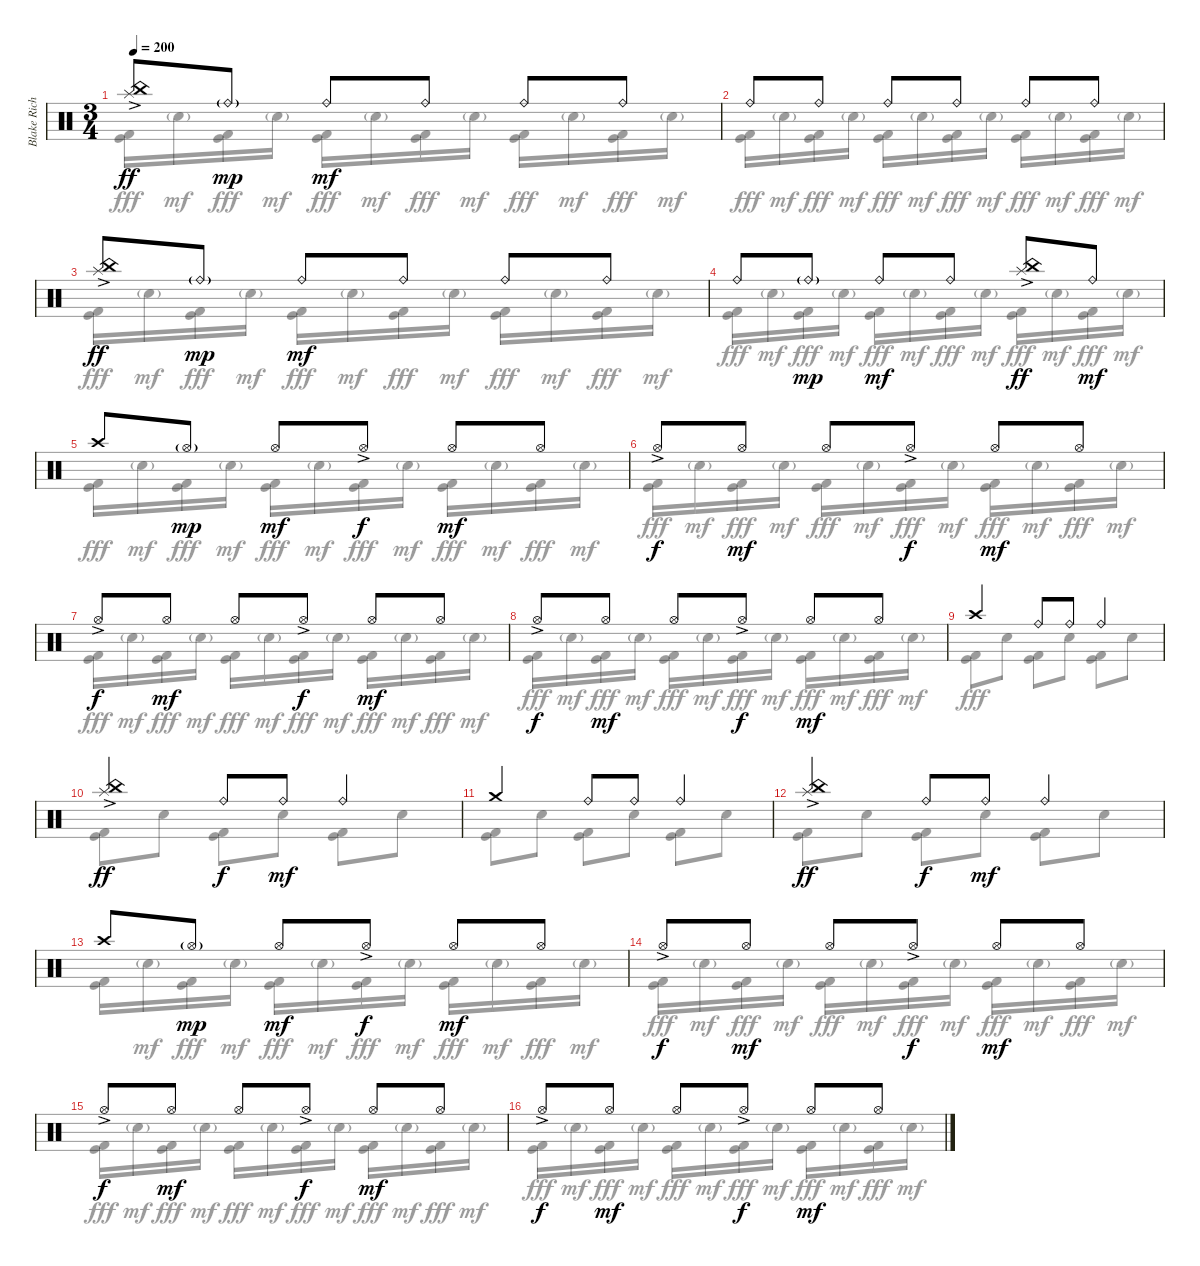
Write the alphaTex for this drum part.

\track ("Blake Richardson Drums" "Blake Rich") {instrument percussion}
\staff {score}
\articulation defaults
\voice
\ts (3 4)
\tempo 200
\clef neutral
\ks c
("China (hit)" "Splash (hit)"{ac}).8{dy ff} "Ride (bell)"{g}.8{dy mp} "Ride (bell)".8{dy mf} "Ride (bell)".8 "Ride (bell)".8 "Ride (bell)".8 |
"Ride (bell)".8 "Ride (bell)".8 "Ride (bell)".8 "Ride (bell)".8 "Ride (bell)".8 "Ride (bell)".8 |
("China (hit)" "Splash (hit)"{ac}).8{dy ff} "Ride (bell)"{g}.8{dy mp} "Ride (bell)".8{dy mf} "Ride (bell)".8 "Ride (bell)".8 "Ride (bell)".8 |
"Ride (bell)".8 "Ride (bell)"{g}.8{dy mp} "Ride (bell)".8{dy mf} "Ride (bell)".8 ("China (hit)" "Splash (hit)"{ac}).8{dy ff} "Ride (bell)".8{dy mf} |
"Crash high (hit)".8 "Hi-Hat (open)"{g}.8{dy mp} "Hi-Hat (open)".8{dy mf} "Hi-Hat (open)"{ac}.8{dy f} "Hi-Hat (open)".8{dy mf} "Hi-Hat (open)".8 |
"Hi-Hat (open)"{ac}.8{dy f} "Hi-Hat (open)".8{dy mf} "Hi-Hat (open)".8 "Hi-Hat (open)"{ac}.8{dy f} "Hi-Hat (open)".8{dy mf} "Hi-Hat (open)".8 |
"Hi-Hat (open)"{ac}.8{dy f} "Hi-Hat (open)".8{dy mf} "Hi-Hat (open)".8 "Hi-Hat (open)"{ac}.8{dy f} "Hi-Hat (open)".8{dy mf} "Hi-Hat (open)".8 |
"Hi-Hat (open)"{ac}.8{dy f} "Hi-Hat (open)".8{dy mf} "Hi-Hat (open)".8 "Hi-Hat (open)"{ac}.8{dy f} "Hi-Hat (open)".8{dy mf} "Hi-Hat (open)".8 |
"Crash high (hit)".4 "Ride (bell)".8 "Ride (bell)".8 "Ride (bell)".4 |
("China (hit)" "Splash (hit)"{ac}).4{dy ff} "Ride (bell)".8{dy f} "Ride (bell)".8{dy mf} "Ride (bell)".4 |
"Crash medium (hit)".4 "Ride (bell)".8 "Ride (bell)".8 "Ride (bell)".4 |
("China (hit)" "Splash (hit)"{ac}).4{dy ff} "Ride (bell)".8{dy f} "Ride (bell)".8{dy mf} "Ride (bell)".4 |
"Crash high (hit)".8 "Hi-Hat (open)"{g}.8{dy mp} "Hi-Hat (open)".8{dy mf} "Hi-Hat (open)"{ac}.8{dy f} "Hi-Hat (open)".8{dy mf} "Hi-Hat (open)".8 |
"Hi-Hat (open)"{ac}.8{dy f} "Hi-Hat (open)".8{dy mf} "Hi-Hat (open)".8 "Hi-Hat (open)"{ac}.8{dy f} "Hi-Hat (open)".8{dy mf} "Hi-Hat (open)".8 |
"Hi-Hat (open)"{ac}.8{dy f} "Hi-Hat (open)".8{dy mf} "Hi-Hat (open)".8 "Hi-Hat (open)"{ac}.8{dy f} "Hi-Hat (open)".8{dy mf} "Hi-Hat (open)".8 |
"Hi-Hat (open)"{ac}.8{dy f} "Hi-Hat (open)".8{dy mf} "Hi-Hat (open)".8 "Hi-Hat (open)"{ac}.8{dy f} "Hi-Hat (open)".8{dy mf} "Hi-Hat (open)".8
\voice
\clef neutral
\ottava regular
\simile none
\ks c
("Kick (hit)" "Kick (hit) 2").16{dy fff} "Electric Snare (hit)"{g}.16{dy mf} ("Kick (hit)" "Kick (hit) 2").16{dy fff} "Electric Snare (hit)"{g}.16{dy mf} ("Kick (hit)" "Kick (hit) 2").16{dy fff} "Electric Snare (hit)"{g}.16{dy mf} ("Kick (hit)" "Kick (hit) 2").16{dy fff} "Electric Snare (hit)"{g}.16{dy mf} ("Kick (hit)" "Kick (hit) 2").16{dy fff} "Electric Snare (hit)"{g}.16{dy mf} ("Kick (hit)" "Kick (hit) 2").16{dy fff} "Electric Snare (hit)"{g}.16{dy mf} |
("Kick (hit)" "Kick (hit) 2").16{dy fff} "Electric Snare (hit)"{g}.16{dy mf} ("Kick (hit)" "Kick (hit) 2").16{dy fff} "Electric Snare (hit)"{g}.16{dy mf} ("Kick (hit)" "Kick (hit) 2").16{dy fff} "Electric Snare (hit)"{g}.16{dy mf} ("Kick (hit)" "Kick (hit) 2").16{dy fff} "Electric Snare (hit)"{g}.16{dy mf} ("Kick (hit)" "Kick (hit) 2").16{dy fff} "Electric Snare (hit)"{g}.16{dy mf} ("Kick (hit)" "Kick (hit) 2").16{dy fff} "Electric Snare (hit)"{g}.16{dy mf} |
("Kick (hit)" "Kick (hit) 2").16{dy fff} "Electric Snare (hit)"{g}.16{dy mf} ("Kick (hit)" "Kick (hit) 2").16{dy fff} "Electric Snare (hit)"{g}.16{dy mf} ("Kick (hit)" "Kick (hit) 2").16{dy fff} "Electric Snare (hit)"{g}.16{dy mf} ("Kick (hit)" "Kick (hit) 2").16{dy fff} "Electric Snare (hit)"{g}.16{dy mf} ("Kick (hit)" "Kick (hit) 2").16{dy fff} "Electric Snare (hit)"{g}.16{dy mf} ("Kick (hit)" "Kick (hit) 2").16{dy fff} "Electric Snare (hit)"{g}.16{dy mf} |
("Kick (hit)" "Kick (hit) 2").16{dy fff} "Electric Snare (hit)"{g}.16{dy mf} ("Kick (hit)" "Kick (hit) 2").16{dy fff} "Electric Snare (hit)"{g}.16{dy mf} ("Kick (hit)" "Kick (hit) 2").16{dy fff} "Electric Snare (hit)"{g}.16{dy mf} ("Kick (hit)" "Kick (hit) 2").16{dy fff} "Electric Snare (hit)"{g}.16{dy mf} ("Kick (hit)" "Kick (hit) 2").16{dy fff} "Electric Snare (hit)"{g}.16{dy mf} ("Kick (hit)" "Kick (hit) 2").16{dy fff} "Electric Snare (hit)"{g}.16{dy mf} |
("Kick (hit)" "Kick (hit) 2").16{dy fff} "Electric Snare (hit)"{g}.16{dy mf} ("Kick (hit)" "Kick (hit) 2").16{dy fff} "Electric Snare (hit)"{g}.16{dy mf} ("Kick (hit)" "Kick (hit) 2").16{dy fff} "Electric Snare (hit)"{g}.16{dy mf} ("Kick (hit)" "Kick (hit) 2").16{dy fff} "Electric Snare (hit)"{g}.16{dy mf} ("Kick (hit)" "Kick (hit) 2").16{dy fff} "Electric Snare (hit)"{g}.16{dy mf} ("Kick (hit)" "Kick (hit) 2").16{dy fff} "Electric Snare (hit)"{g}.16{dy mf} |
("Kick (hit)" "Kick (hit) 2").16{dy fff} "Electric Snare (hit)"{g}.16{dy mf} ("Kick (hit)" "Kick (hit) 2").16{dy fff} "Electric Snare (hit)"{g}.16{dy mf} ("Kick (hit)" "Kick (hit) 2").16{dy fff} "Electric Snare (hit)"{g}.16{dy mf} ("Kick (hit)" "Kick (hit) 2").16{dy fff} "Electric Snare (hit)"{g}.16{dy mf} ("Kick (hit)" "Kick (hit) 2").16{dy fff} "Electric Snare (hit)"{g}.16{dy mf} ("Kick (hit)" "Kick (hit) 2").16{dy fff} "Electric Snare (hit)"{g}.16{dy mf} |
("Kick (hit)" "Kick (hit) 2").16{dy fff} "Electric Snare (hit)"{g}.16{dy mf} ("Kick (hit)" "Kick (hit) 2").16{dy fff} "Electric Snare (hit)"{g}.16{dy mf} ("Kick (hit)" "Kick (hit) 2").16{dy fff} "Electric Snare (hit)"{g}.16{dy mf} ("Kick (hit)" "Kick (hit) 2").16{dy fff} "Electric Snare (hit)"{g}.16{dy mf} ("Kick (hit)" "Kick (hit) 2").16{dy fff} "Electric Snare (hit)"{g}.16{dy mf} ("Kick (hit)" "Kick (hit) 2").16{dy fff} "Electric Snare (hit)"{g}.16{dy mf} |
("Kick (hit)" "Kick (hit) 2").16{dy fff} "Electric Snare (hit)"{g}.16{dy mf} ("Kick (hit)" "Kick (hit) 2").16{dy fff} "Electric Snare (hit)"{g}.16{dy mf} ("Kick (hit)" "Kick (hit) 2").16{dy fff} "Electric Snare (hit)"{g}.16{dy mf} ("Kick (hit)" "Kick (hit) 2").16{dy fff} "Electric Snare (hit)"{g}.16{dy mf} ("Kick (hit)" "Kick (hit) 2").16{dy fff} "Electric Snare (hit)"{g}.16{dy mf} ("Kick (hit)" "Kick (hit) 2").16{dy fff} "Electric Snare (hit)"{g}.16{dy mf} |
("Kick (hit)" "Kick (hit) 2").8{dy fff} "Electric Snare (hit)".8 ("Kick (hit)" "Kick (hit) 2").8 "Electric Snare (hit)".8 ("Kick (hit)" "Kick (hit) 2").8 "Electric Snare (hit)".8 |
("Kick (hit)" "Kick (hit) 2").8 "Electric Snare (hit)".8 ("Kick (hit)" "Kick (hit) 2").8 "Electric Snare (hit)".8 ("Kick (hit)" "Kick (hit) 2").8 "Electric Snare (hit)".8 |
("Kick (hit)" "Kick (hit) 2").8 "Electric Snare (hit)".8 ("Kick (hit)" "Kick (hit) 2").8 "Electric Snare (hit)".8 ("Kick (hit)" "Kick (hit) 2").8 "Electric Snare (hit)".8 |
("Kick (hit)" "Kick (hit) 2").8 "Electric Snare (hit)".8 ("Kick (hit)" "Kick (hit) 2").8 "Electric Snare (hit)".8 ("Kick (hit)" "Kick (hit) 2").8 "Electric Snare (hit)".8 |
("Kick (hit)" "Kick (hit) 2").16 "Electric Snare (hit)"{g}.16{dy mf} ("Kick (hit)" "Kick (hit) 2").16{dy fff} "Electric Snare (hit)"{g}.16{dy mf} ("Kick (hit)" "Kick (hit) 2").16{dy fff} "Electric Snare (hit)"{g}.16{dy mf} ("Kick (hit)" "Kick (hit) 2").16{dy fff} "Electric Snare (hit)"{g}.16{dy mf} ("Kick (hit)" "Kick (hit) 2").16{dy fff} "Electric Snare (hit)"{g}.16{dy mf} ("Kick (hit)" "Kick (hit) 2").16{dy fff} "Electric Snare (hit)"{g}.16{dy mf} |
("Kick (hit)" "Kick (hit) 2").16{dy fff} "Electric Snare (hit)"{g}.16{dy mf} ("Kick (hit)" "Kick (hit) 2").16{dy fff} "Electric Snare (hit)"{g}.16{dy mf} ("Kick (hit)" "Kick (hit) 2").16{dy fff} "Electric Snare (hit)"{g}.16{dy mf} ("Kick (hit)" "Kick (hit) 2").16{dy fff} "Electric Snare (hit)"{g}.16{dy mf} ("Kick (hit)" "Kick (hit) 2").16{dy fff} "Electric Snare (hit)"{g}.16{dy mf} ("Kick (hit)" "Kick (hit) 2").16{dy fff} "Electric Snare (hit)"{g}.16{dy mf} |
("Kick (hit)" "Kick (hit) 2").16{dy fff} "Electric Snare (hit)"{g}.16{dy mf} ("Kick (hit)" "Kick (hit) 2").16{dy fff} "Electric Snare (hit)"{g}.16{dy mf} ("Kick (hit)" "Kick (hit) 2").16{dy fff} "Electric Snare (hit)"{g}.16{dy mf} ("Kick (hit)" "Kick (hit) 2").16{dy fff} "Electric Snare (hit)"{g}.16{dy mf} ("Kick (hit)" "Kick (hit) 2").16{dy fff} "Electric Snare (hit)"{g}.16{dy mf} ("Kick (hit)" "Kick (hit) 2").16{dy fff} "Electric Snare (hit)"{g}.16{dy mf} |
("Kick (hit)" "Kick (hit) 2").16{dy fff} "Electric Snare (hit)"{g}.16{dy mf} ("Kick (hit)" "Kick (hit) 2").16{dy fff} "Electric Snare (hit)"{g}.16{dy mf} ("Kick (hit)" "Kick (hit) 2").16{dy fff} "Electric Snare (hit)"{g}.16{dy mf} ("Kick (hit)" "Kick (hit) 2").16{dy fff} "Electric Snare (hit)"{g}.16{dy mf} ("Kick (hit)" "Kick (hit) 2").16{dy fff} "Electric Snare (hit)"{g}.16{dy mf} ("Kick (hit)" "Kick (hit) 2").16{dy fff} "Electric Snare (hit)"{g}.16{dy mf}
